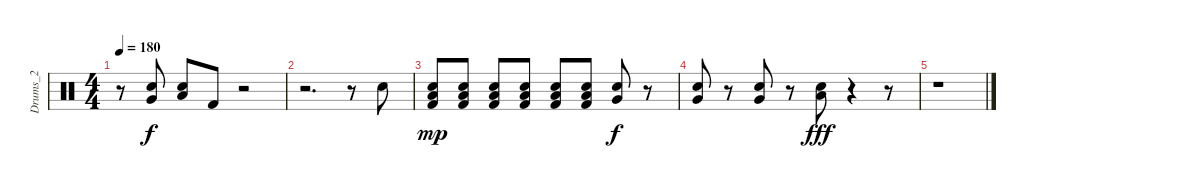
\track ("Drums_2" "Drums_2") {instrument percussion}
\staff {score}
\articulation defaults
\ts (4 4)
\tempo 180
\clef neutral
\ks c
r.8{dy f} ("Snare (hit) 2" "Very Low Tom (hit)").8 ("Snare (hit) 2" "Low Floor Tom (hit)").8 "Kick (hit) 2".8 r.2 |
r.2{d} r.8 "Snare (hit) 2".8 |
("Kick (hit) 2" "Snare (hit) 2" "Low Floor Tom (hit)").8{dy mp} ("Kick (hit) 2" "Snare (hit) 2" "Low Floor Tom (hit)").8 ("Kick (hit) 2" "Snare (hit) 2" "Low Floor Tom (hit)").8 ("Kick (hit) 2" "Snare (hit) 2" "Low Floor Tom (hit)").8 ("Kick (hit) 2" "Snare (hit) 2" "Low Floor Tom (hit)").8 ("Kick (hit) 2" "Snare (hit) 2" "Low Floor Tom (hit)").8 ("Snare (hit) 2" "Very Low Tom (hit)").8{dy f} r.8 |
("Snare (hit) 2" "Very Low Tom (hit)").8 r.8 ("Snare (hit) 2" "Very Low Tom (hit)").8 r.8 ("Snare (hit) 2" "Low Floor Tom (hit)").8{dy fff} r.4 r.8 |
r.1
